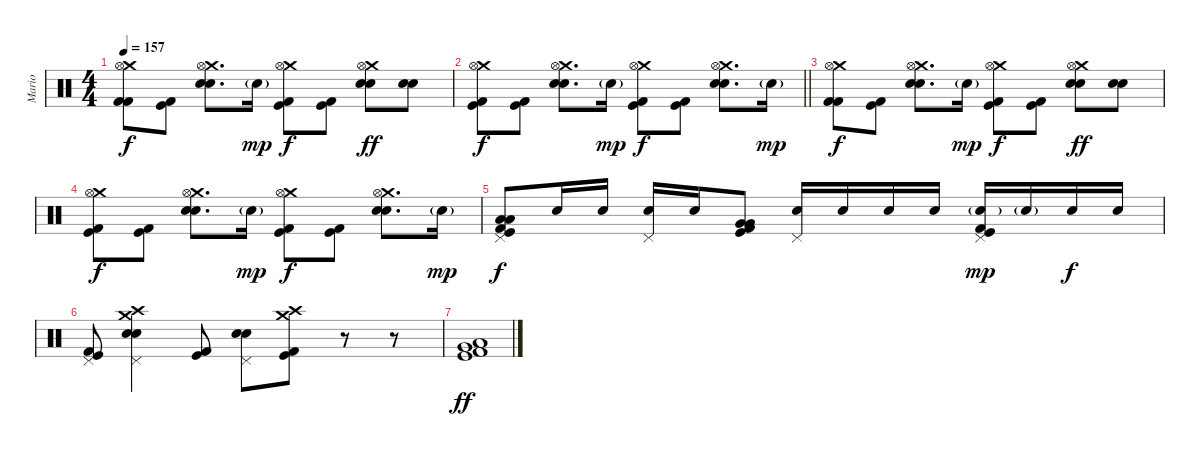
\track ("Mario" "Mario") {instrument percussion}
\staff {score}
\articulation defaults
\ts (4 4)
\tempo 157
\clef neutral
\ks c
("Crash medium (hit)" "Hi-Hat (open)" "Kick (hit) 2" "Kick (hit) 2").8{dy f} ("Kick (hit)" "Kick (hit) 2").8 ("Crash medium (hit)" "Hi-Hat (open)" "Electric Snare (hit)" "Snare (hit) 2").8{d} "Snare (hit) 2"{g}.16{dy mp} ("Crash medium (hit)" "Hi-Hat (open)" "Kick (hit)" "Kick (hit) 2").8{dy f} ("Kick (hit)" "Kick (hit) 2").8 ("Crash medium (hit)" "Hi-Hat (open)" "Electric Snare (hit)" "Snare (hit) 2").8{dy ff} ("Electric Snare (hit)" "Snare (hit) 2").8 |
\barLineRight lightlight
("Crash medium (hit)" "Hi-Hat (open)" "Kick (hit)" "Kick (hit) 2").8{dy f} ("Kick (hit)" "Kick (hit) 2").8 ("Crash medium (hit)" "Hi-Hat (open)" "Electric Snare (hit)" "Snare (hit) 2").8{d} "Snare (hit) 2"{g}.16{dy mp} ("Crash medium (hit)" "Hi-Hat (open)" "Kick (hit)" "Kick (hit) 2").8{dy f} ("Kick (hit)" "Kick (hit) 2").8 ("Crash medium (hit)" "Hi-Hat (open)" "Electric Snare (hit)" "Snare (hit) 2").8{d} "Snare (hit) 2"{g}.16{dy mp} |
("Crash medium (hit)" "Hi-Hat (open)" "Kick (hit) 2" "Kick (hit) 2").8{dy f} ("Kick (hit)" "Kick (hit) 2").8 ("Crash medium (hit)" "Hi-Hat (open)" "Electric Snare (hit)" "Snare (hit) 2").8{d} "Snare (hit) 2"{g}.16{dy mp} ("Crash medium (hit)" "Hi-Hat (open)" "Kick (hit)" "Kick (hit) 2").8{dy f} ("Kick (hit)" "Kick (hit) 2").8 ("Crash medium (hit)" "Hi-Hat (open)" "Electric Snare (hit)" "Snare (hit) 2").8{dy ff} ("Electric Snare (hit)" "Snare (hit) 2").8 |
("Crash medium (hit)" "Hi-Hat (open)" "Kick (hit)" "Kick (hit) 2").8{dy f} ("Kick (hit)" "Kick (hit) 2").8 ("Crash medium (hit)" "Hi-Hat (open)" "Electric Snare (hit)" "Snare (hit) 2").8{d} "Snare (hit) 2"{g}.16{dy mp} ("Crash medium (hit)" "Hi-Hat (open)" "Kick (hit)" "Kick (hit) 2").8{dy f} ("Kick (hit)" "Kick (hit) 2").8 ("Crash medium (hit)" "Hi-Hat (open)" "Electric Snare (hit)" "Snare (hit) 2").8{d} "Snare (hit) 2"{g}.16{dy mp} |
("Pedal Hi-Hat (hit)" "Low Tom (hit)" "Low Tom (hit)" "Kick (hit)" "Kick (hit) 2").8{dy f} "Snare (hit) 2".16 "Snare (hit) 2".16 ("Pedal Hi-Hat (hit)" "Snare (hit) 2").16 "Snare (hit) 2".16 ("Very Low Tom (hit)" "Very Low Tom (hit)" "Kick (hit)" "Kick (hit) 2").8 ("Pedal Hi-Hat (hit)" "Snare (hit) 2").16 "Snare (hit) 2".16 "Snare (hit) 2".16 "Snare (hit) 2".16 ("Pedal Hi-Hat (hit)" "Snare (hit) 2"{g} "Kick (hit)" "Kick (hit) 2").16{dy mp} "Snare (hit) 2"{g}.16 "Snare (hit) 2".16{dy f} "Snare (hit) 2".16 |
("Pedal Hi-Hat (hit)" "Kick (hit)" "Kick (hit) 2").8 ("Crash medium (hit)" "Crash high (hit)" "Electric Snare (hit)" "Snare (hit) 2" "Pedal Hi-Hat (hit)").4 ("Kick (hit)" "Kick (hit) 2").8 ("Pedal Hi-Hat (hit)" "Electric Snare (hit)" "Snare (hit) 2").8 ("Crash medium (hit)" "Crash high (hit)" "Kick (hit)" "Kick (hit) 2").8 r.8 r.8 |
("Low Tom (hit)" "Very Low Tom (hit)" "Kick (hit)" "Kick (hit) 2").1{dy ff}
